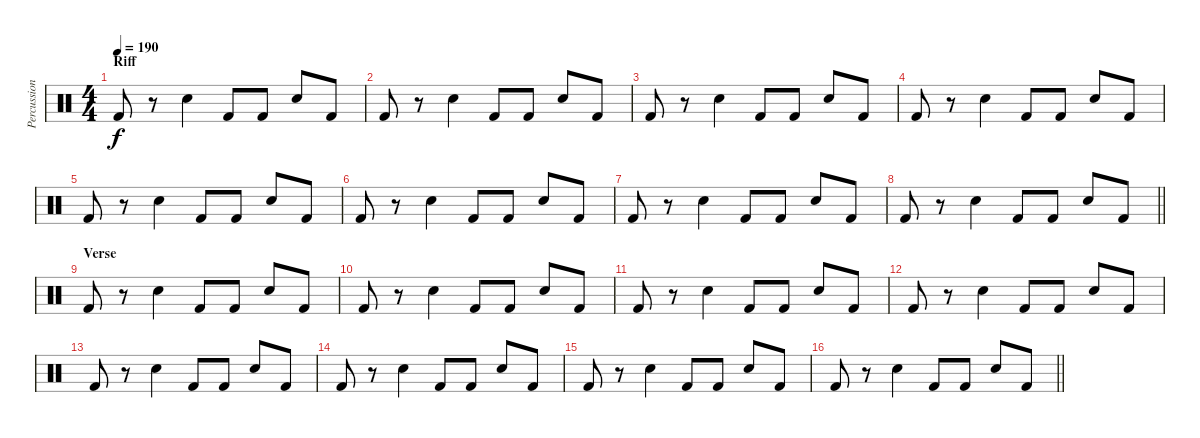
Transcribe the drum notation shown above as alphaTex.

\track ("Percussion" "Percussion") {instrument percussion}
\staff {score}
\articulation defaults
\ts (4 4)
\section ("" "Riff")
\tempo 190
\clef neutral
\ks c "Kick (hit) 2".8{dy f}
r.8 "Electric Snare (hit)".4 "Kick (hit) 2".8 "Kick (hit) 2".8 "Electric Snare (hit)".8 "Kick (hit) 2".8 |
"Kick (hit) 2".8 r.8 "Electric Snare (hit)".4 "Kick (hit) 2".8 "Kick (hit) 2".8 "Electric Snare (hit)".8 "Kick (hit) 2".8 |
"Kick (hit) 2".8 r.8 "Electric Snare (hit)".4 "Kick (hit) 2".8 "Kick (hit) 2".8 "Electric Snare (hit)".8 "Kick (hit) 2".8 |
"Kick (hit) 2".8 r.8 "Electric Snare (hit)".4 "Kick (hit) 2".8 "Kick (hit) 2".8 "Electric Snare (hit)".8 "Kick (hit) 2".8 |
"Kick (hit) 2".8 r.8 "Electric Snare (hit)".4 "Kick (hit) 2".8 "Kick (hit) 2".8 "Electric Snare (hit)".8 "Kick (hit) 2".8 |
"Kick (hit) 2".8 r.8 "Electric Snare (hit)".4 "Kick (hit) 2".8 "Kick (hit) 2".8 "Electric Snare (hit)".8 "Kick (hit) 2".8 |
"Kick (hit) 2".8 r.8 "Electric Snare (hit)".4 "Kick (hit) 2".8 "Kick (hit) 2".8 "Electric Snare (hit)".8 "Kick (hit) 2".8 |
\barLineRight lightlight "Kick (hit) 2".8
r.8 "Electric Snare (hit)".4 "Kick (hit) 2".8 "Kick (hit) 2".8 "Electric Snare (hit)".8 "Kick (hit) 2".8 |
\section ("" "Verse")
"Kick (hit) 2".8 r.8 "Electric Snare (hit)".4 "Kick (hit) 2".8 "Kick (hit) 2".8 "Electric Snare (hit)".8 "Kick (hit) 2".8 |
"Kick (hit) 2".8 r.8 "Electric Snare (hit)".4 "Kick (hit) 2".8 "Kick (hit) 2".8 "Electric Snare (hit)".8 "Kick (hit) 2".8 |
"Kick (hit) 2".8 r.8 "Electric Snare (hit)".4 "Kick (hit) 2".8 "Kick (hit) 2".8 "Electric Snare (hit)".8 "Kick (hit) 2".8 |
"Kick (hit) 2".8 r.8 "Electric Snare (hit)".4 "Kick (hit) 2".8 "Kick (hit) 2".8 "Electric Snare (hit)".8 "Kick (hit) 2".8 |
"Kick (hit) 2".8 r.8 "Electric Snare (hit)".4 "Kick (hit) 2".8 "Kick (hit) 2".8 "Electric Snare (hit)".8 "Kick (hit) 2".8 |
"Kick (hit) 2".8 r.8 "Electric Snare (hit)".4 "Kick (hit) 2".8 "Kick (hit) 2".8 "Electric Snare (hit)".8 "Kick (hit) 2".8 |
"Kick (hit) 2".8 r.8 "Electric Snare (hit)".4 "Kick (hit) 2".8 "Kick (hit) 2".8 "Electric Snare (hit)".8 "Kick (hit) 2".8 |
\barLineRight lightlight "Kick (hit) 2".8
r.8 "Electric Snare (hit)".4 "Kick (hit) 2".8 "Kick (hit) 2".8 "Electric Snare (hit)".8 "Kick (hit) 2".8
